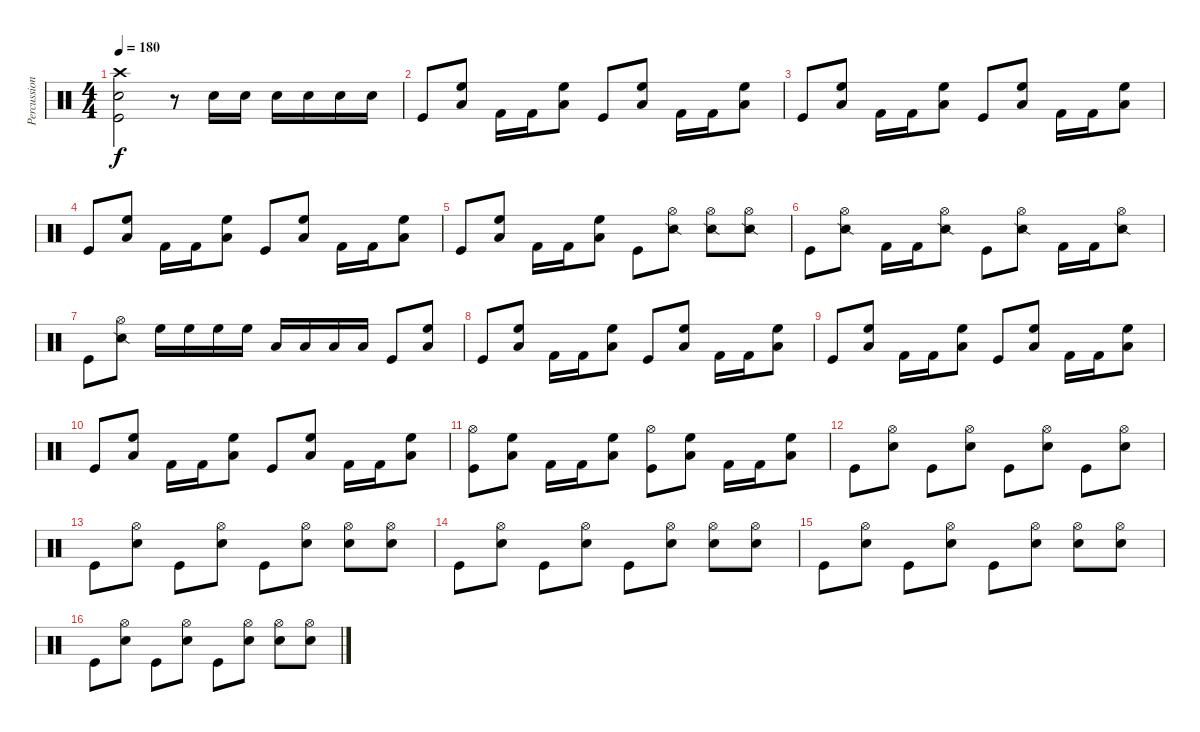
\track ("Percussion" "Percussion") {instrument percussion}
\staff {score}
\articulation defaults
\ts (4 4)
\tempo 180
\clef neutral
\ks c
("Crash high (hit)" "Electric Snare (hit)" "Kick (hit)").2{dy f} r.8 "Electric Snare (hit)".16 "Electric Snare (hit)".16 "Electric Snare (hit)".16 "Electric Snare (hit)".16 "Electric Snare (hit)".16 "Electric Snare (hit)".16 |
"Kick (hit)".8 ("High Floor Tom (hit)" "Low Floor Tom (hit)").8 "Kick (hit) 2".16 "Kick (hit) 2".16 ("High Floor Tom (hit)" "Low Floor Tom (hit)").8 "Kick (hit)".8 ("High Floor Tom (hit)" "Low Floor Tom (hit)").8 "Kick (hit) 2".16 "Kick (hit) 2".16 ("High Floor Tom (hit)" "Low Floor Tom (hit)").8 |
"Kick (hit)".8 ("High Floor Tom (hit)" "Low Floor Tom (hit)").8 "Kick (hit) 2".16 "Kick (hit) 2".16 ("High Floor Tom (hit)" "Low Floor Tom (hit)").8 "Kick (hit)".8 ("High Floor Tom (hit)" "Low Floor Tom (hit)").8 "Kick (hit) 2".16 "Kick (hit) 2".16 ("High Floor Tom (hit)" "Low Floor Tom (hit)").8 |
"Kick (hit)".8 ("High Floor Tom (hit)" "Low Floor Tom (hit)").8 "Kick (hit) 2".16 "Kick (hit) 2".16 ("High Floor Tom (hit)" "Low Floor Tom (hit)").8 "Kick (hit)".8 ("High Floor Tom (hit)" "Low Floor Tom (hit)").8 "Kick (hit) 2".16 "Kick (hit) 2".16 ("High Floor Tom (hit)" "Low Floor Tom (hit)").8 |
"Kick (hit)".8 ("High Floor Tom (hit)" "Low Floor Tom (hit)").8 "Kick (hit) 2".16 "Kick (hit) 2".16 ("High Floor Tom (hit)" "Low Floor Tom (hit)").8 "Kick (hit)".8 ("Hi-Hat (open)" "Snare (side stick) 2").8 ("Hi-Hat (open)" "Snare (side stick) 2").8 ("Hi-Hat (open)" "Snare (side stick) 2").8 |
"Kick (hit)".8 ("Hi-Hat (open)" "Snare (side stick) 2").8 "Kick (hit) 2".16 "Kick (hit) 2".16 ("Hi-Hat (open)" "Snare (side stick) 2").8 "Kick (hit)".8 ("Hi-Hat (open)" "Snare (side stick) 2").8 "Kick (hit) 2".16 "Kick (hit) 2".16 ("Hi-Hat (open)" "Snare (side stick) 2").8 |
"Kick (hit)".8 ("Hi-Hat (open)" "Snare (side stick) 2").8 "High Floor Tom (hit)".16 "High Floor Tom (hit)".16 "High Floor Tom (hit)".16 "High Floor Tom (hit)".16 "Low Floor Tom (hit)".16 "Low Floor Tom (hit)".16 "Low Floor Tom (hit)".16 "Low Floor Tom (hit)".16 "Kick (hit)".8 ("High Floor Tom (hit)" "Low Floor Tom (hit)").8 |
"Kick (hit)".8 ("High Floor Tom (hit)" "Low Floor Tom (hit)").8 "Kick (hit) 2".16 "Kick (hit) 2".16 ("High Floor Tom (hit)" "Low Floor Tom (hit)").8 "Kick (hit)".8 ("High Floor Tom (hit)" "Low Floor Tom (hit)").8 "Kick (hit) 2".16 "Kick (hit) 2".16 ("High Floor Tom (hit)" "Low Floor Tom (hit)").8 |
"Kick (hit)".8 ("High Floor Tom (hit)" "Low Floor Tom (hit)").8 "Kick (hit) 2".16 "Kick (hit) 2".16 ("High Floor Tom (hit)" "Low Floor Tom (hit)").8 "Kick (hit)".8 ("High Floor Tom (hit)" "Low Floor Tom (hit)").8 "Kick (hit) 2".16 "Kick (hit) 2".16 ("High Floor Tom (hit)" "Low Floor Tom (hit)").8 |
"Kick (hit)".8 ("High Floor Tom (hit)" "Low Floor Tom (hit)").8 "Kick (hit) 2".16 "Kick (hit) 2".16 ("High Floor Tom (hit)" "Low Floor Tom (hit)").8 "Kick (hit)".8 ("High Floor Tom (hit)" "Low Floor Tom (hit)").8 "Kick (hit) 2".16 "Kick (hit) 2".16 ("High Floor Tom (hit)" "Low Floor Tom (hit)").8 |
("Hi-Hat (open)" "Kick (hit)").8 ("High Floor Tom (hit)" "Low Floor Tom (hit)").8 "Kick (hit) 2".16 "Kick (hit) 2".16 ("High Floor Tom (hit)" "Low Floor Tom (hit)").8 ("Hi-Hat (open)" "Kick (hit)").8 ("High Floor Tom (hit)" "Low Floor Tom (hit)").8 "Kick (hit) 2".16 "Kick (hit) 2".16 ("High Floor Tom (hit)" "Low Floor Tom (hit)").8 |
"Kick (hit)".8 ("Hi-Hat (open)" "Electric Snare (hit)").8 "Kick (hit)".8 ("Hi-Hat (open)" "Electric Snare (hit)").8 "Kick (hit)".8 ("Hi-Hat (open)" "Electric Snare (hit)").8 "Kick (hit)".8 ("Hi-Hat (open)" "Electric Snare (hit)").8 |
"Kick (hit)".8 ("Hi-Hat (open)" "Electric Snare (hit)").8 "Kick (hit)".8 ("Hi-Hat (open)" "Electric Snare (hit)").8 "Kick (hit)".8 ("Hi-Hat (open)" "Electric Snare (hit)").8 ("Hi-Hat (open)" "Electric Snare (hit)").8 ("Hi-Hat (open)" "Electric Snare (hit)").8 |
"Kick (hit)".8 ("Hi-Hat (open)" "Electric Snare (hit)").8 "Kick (hit)".8 ("Hi-Hat (open)" "Electric Snare (hit)").8 "Kick (hit)".8 ("Hi-Hat (open)" "Electric Snare (hit)").8 ("Hi-Hat (open)" "Electric Snare (hit)").8 ("Hi-Hat (open)" "Electric Snare (hit)").8 |
"Kick (hit)".8 ("Hi-Hat (open)" "Electric Snare (hit)").8 "Kick (hit)".8 ("Hi-Hat (open)" "Electric Snare (hit)").8 "Kick (hit)".8 ("Hi-Hat (open)" "Electric Snare (hit)").8 ("Hi-Hat (open)" "Electric Snare (hit)").8 ("Hi-Hat (open)" "Electric Snare (hit)").8 |
"Kick (hit)".8 ("Hi-Hat (open)" "Electric Snare (hit)").8 "Kick (hit)".8 ("Hi-Hat (open)" "Electric Snare (hit)").8 "Kick (hit)".8 ("Hi-Hat (open)" "Electric Snare (hit)").8 ("Hi-Hat (open)" "Electric Snare (hit)").8 ("Hi-Hat (open)" "Electric Snare (hit)").8
